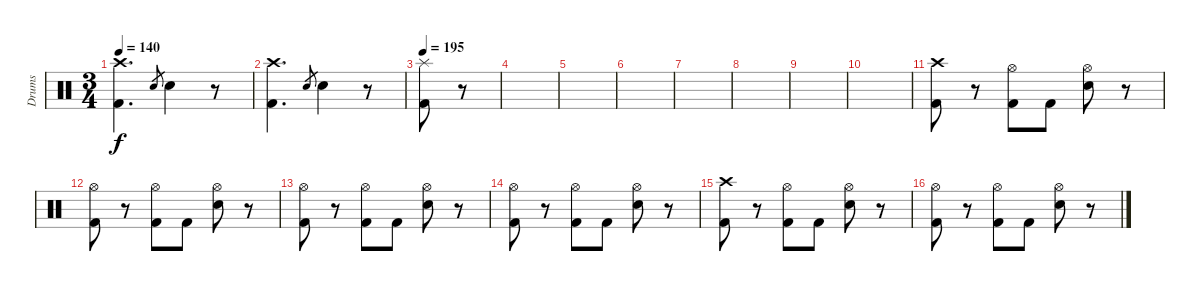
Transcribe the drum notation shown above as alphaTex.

\track ("Drums" "Drums") {instrument percussion}
\staff {score}
\articulation defaults
\ts (3 4)
\tempo 140
\clef neutral
\ks c
("Crash high (hit)" "Kick (hit) 2").4{d dy f} "Electric Snare (hit)".8{gr} "Electric Snare (hit)".4 r.8 |
("Crash high (hit)" "Kick (hit) 2").4{d} "Electric Snare (hit)".8{gr} "Electric Snare (hit)".4 r.8 |
\tempo 195
("Splash (hit)" "Kick (hit) 2").8 r.8 |
|
|
|
|
|
|
|
("Crash high (hit)" "Kick (hit) 2").8 r.8 ("Hi-Hat (open)" "Kick (hit) 2").8 "Kick (hit) 2".8 ("Hi-Hat (open)" "Electric Snare (hit)").8 r.8 |
("Hi-Hat (open)" "Kick (hit) 2").8 r.8 ("Hi-Hat (open)" "Kick (hit) 2").8 "Kick (hit) 2".8 ("Hi-Hat (open)" "Electric Snare (hit)").8 r.8 |
("Hi-Hat (open)" "Kick (hit) 2").8 r.8 ("Hi-Hat (open)" "Kick (hit) 2").8 "Kick (hit) 2".8 ("Hi-Hat (open)" "Electric Snare (hit)").8 r.8 |
("Hi-Hat (open)" "Kick (hit) 2").8 r.8 ("Hi-Hat (open)" "Kick (hit) 2").8 "Kick (hit) 2".8 ("Hi-Hat (open)" "Electric Snare (hit)").8 r.8 |
("Crash high (hit)" "Kick (hit) 2").8 r.8 ("Hi-Hat (open)" "Kick (hit) 2").8 "Kick (hit) 2".8 ("Hi-Hat (open)" "Electric Snare (hit)").8 r.8 |
("Hi-Hat (open)" "Kick (hit) 2").8 r.8 ("Hi-Hat (open)" "Kick (hit) 2").8 "Kick (hit) 2".8 ("Hi-Hat (open)" "Electric Snare (hit)").8 r.8
